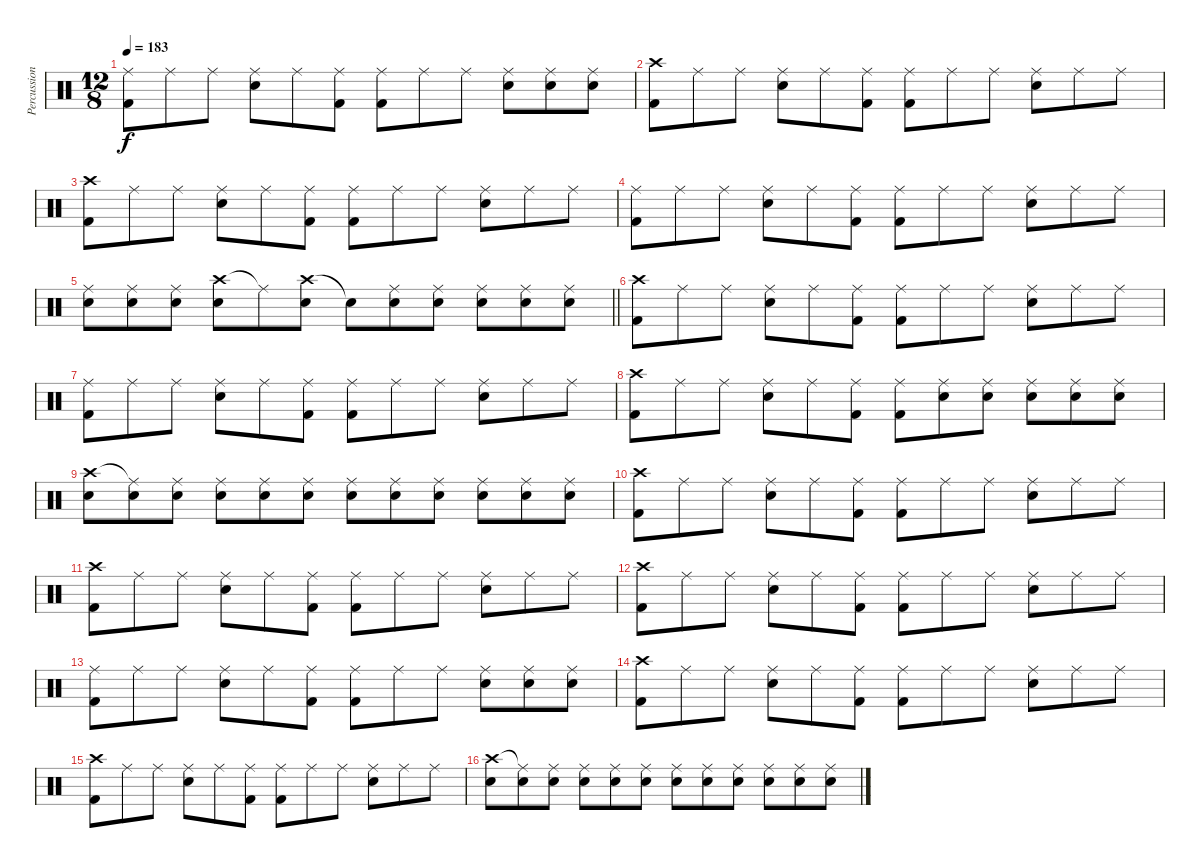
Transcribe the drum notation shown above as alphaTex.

\track ("Percussion" "Percussion") {instrument percussion}
\staff {score}
\articulation defaults
\ts (12 8)
\tempo 183
\clef neutral
\ks c
("Ride (middle)" "Kick (hit) 2").8{dy f} "Ride (middle)".8 "Ride (middle)".8 ("Ride (middle)" "Snare (hit) 2").8 "Ride (middle)".8 ("Ride (middle)" "Kick (hit) 2").8 ("Ride (middle)" "Kick (hit) 2").8 "Ride (middle)".8 "Ride (middle)".8 ("Ride (middle)" "Snare (hit) 2").8 ("Ride (middle)" "Snare (hit) 2").8 ("Ride (middle)" "Snare (hit) 2").8 |
("Crash high (hit)" "Kick (hit) 2").8 "Ride (middle)".8 "Ride (middle)".8 ("Ride (middle)" "Snare (hit) 2").8 "Ride (middle)".8 ("Ride (middle)" "Kick (hit) 2").8 ("Ride (middle)" "Kick (hit) 2").8 "Ride (middle)".8 "Ride (middle)".8 ("Ride (middle)" "Snare (hit) 2").8 "Ride (middle)".8 "Ride (middle)".8 |
("Crash high (hit)" "Kick (hit) 2").8 "Ride (middle)".8 "Ride (middle)".8 ("Ride (middle)" "Snare (hit) 2").8 "Ride (middle)".8 ("Ride (middle)" "Kick (hit) 2").8 ("Ride (middle)" "Kick (hit) 2").8 "Ride (middle)".8 "Ride (middle)".8 ("Ride (middle)" "Snare (hit) 2").8 "Ride (middle)".8 "Ride (middle)".8 |
("Ride (middle)" "Kick (hit) 2").8 "Ride (middle)".8 "Ride (middle)".8 ("Ride (middle)" "Snare (hit) 2").8 "Ride (middle)".8 ("Ride (middle)" "Kick (hit) 2").8 ("Ride (middle)" "Kick (hit) 2").8 "Ride (middle)".8 "Ride (middle)".8 ("Ride (middle)" "Snare (hit) 2").8 "Ride (middle)".8 "Ride (middle)".8 |
\barLineRight lightlight
("Ride (middle)" "Snare (hit) 2").8 ("Ride (middle)" "Snare (hit) 2").8 ("Ride (middle)" "Snare (hit) 2").8 ("Crash high (hit)" "Snare (hit) 2").8 "Ride (middle)"{t}.8 ("Crash high (hit)" "Snare (hit) 2").8 "Snare (hit)"{t}.8 ("Ride (middle)" "Snare (hit) 2").8 ("Ride (middle)" "Snare (hit) 2").8 ("Ride (middle)" "Snare (hit) 2").8 ("Ride (middle)" "Snare (hit) 2").8 ("Ride (middle)" "Snare (hit) 2").8 |
("Crash high (hit)" "Kick (hit) 2").8 "Ride (middle)".8 "Ride (middle)".8 ("Ride (middle)" "Snare (hit) 2").8 "Ride (middle)".8 ("Ride (middle)" "Kick (hit) 2").8 ("Ride (middle)" "Kick (hit) 2").8 "Ride (middle)".8 "Ride (middle)".8 ("Ride (middle)" "Snare (hit) 2").8 "Ride (middle)".8 "Ride (middle)".8 |
("Ride (middle)" "Kick (hit) 2").8 "Ride (middle)".8 "Ride (middle)".8 ("Ride (middle)" "Snare (hit) 2").8 "Ride (middle)".8 ("Ride (middle)" "Kick (hit) 2").8 ("Ride (middle)" "Kick (hit) 2").8 "Ride (middle)".8 "Ride (middle)".8 ("Ride (middle)" "Snare (hit) 2").8 "Ride (middle)".8 "Ride (middle)".8 |
("Crash high (hit)" "Kick (hit) 2").8 "Ride (middle)".8 "Ride (middle)".8 ("Ride (middle)" "Snare (hit) 2").8 "Ride (middle)".8 ("Ride (middle)" "Kick (hit) 2").8 ("Ride (middle)" "Kick (hit) 2").8 ("Ride (middle)" "Snare (hit) 2").8 ("Ride (middle)" "Snare (hit) 2").8 ("Ride (middle)" "Snare (hit) 2").8 ("Ride (middle)" "Snare (hit) 2").8 ("Ride (middle)" "Snare (hit) 2").8 |
("Crash high (hit)" "Snare (hit) 2").8 ("Ride (middle)"{t} "Snare (hit) 2").8 ("Ride (middle)" "Snare (hit) 2").8 ("Ride (middle)" "Snare (hit) 2").8 ("Ride (middle)" "Snare (hit) 2").8 ("Ride (middle)" "Snare (hit) 2").8 ("Ride (middle)" "Snare (hit) 2").8 ("Ride (middle)" "Snare (hit) 2").8 ("Ride (middle)" "Snare (hit) 2").8 ("Ride (middle)" "Snare (hit) 2").8 ("Ride (middle)" "Snare (hit) 2").8 ("Ride (middle)" "Snare (hit) 2").8 |
("Crash high (hit)" "Kick (hit) 2").8 "Ride (middle)".8 "Ride (middle)".8 ("Ride (middle)" "Snare (hit) 2").8 "Ride (middle)".8 ("Ride (middle)" "Kick (hit) 2").8 ("Ride (middle)" "Kick (hit) 2").8 "Ride (middle)".8 "Ride (middle)".8 ("Ride (middle)" "Snare (hit) 2").8 "Ride (middle)".8 "Ride (middle)".8 |
("Crash high (hit)" "Kick (hit) 2").8 "Ride (middle)".8 "Ride (middle)".8 ("Ride (middle)" "Snare (hit) 2").8 "Ride (middle)".8 ("Ride (middle)" "Kick (hit) 2").8 ("Ride (middle)" "Kick (hit) 2").8 "Ride (middle)".8 "Ride (middle)".8 ("Ride (middle)" "Snare (hit) 2").8 "Ride (middle)".8 "Ride (middle)".8 |
("Crash high (hit)" "Kick (hit) 2").8 "Ride (middle)".8 "Ride (middle)".8 ("Ride (middle)" "Snare (hit) 2").8 "Ride (middle)".8 ("Ride (middle)" "Kick (hit) 2").8 ("Ride (middle)" "Kick (hit) 2").8 "Ride (middle)".8 "Ride (middle)".8 ("Ride (middle)" "Snare (hit) 2").8 "Ride (middle)".8 "Ride (middle)".8 |
("Ride (middle)" "Kick (hit) 2").8 "Ride (middle)".8 "Ride (middle)".8 ("Ride (middle)" "Snare (hit) 2").8 "Ride (middle)".8 ("Ride (middle)" "Kick (hit) 2").8 ("Ride (middle)" "Kick (hit) 2").8 "Ride (middle)".8 "Ride (middle)".8 ("Ride (middle)" "Snare (hit) 2").8 ("Ride (middle)" "Snare (hit) 2").8 ("Ride (middle)" "Snare (hit) 2").8 |
("Crash high (hit)" "Kick (hit) 2").8 "Ride (middle)".8 "Ride (middle)".8 ("Ride (middle)" "Snare (hit) 2").8 "Ride (middle)".8 ("Ride (middle)" "Kick (hit) 2").8 ("Ride (middle)" "Kick (hit) 2").8 "Ride (middle)".8 "Ride (middle)".8 ("Ride (middle)" "Snare (hit) 2").8 "Ride (middle)".8 "Ride (middle)".8 |
("Crash high (hit)" "Kick (hit) 2").8 "Ride (middle)".8 "Ride (middle)".8 ("Ride (middle)" "Snare (hit) 2").8 "Ride (middle)".8 ("Ride (middle)" "Kick (hit) 2").8 ("Ride (middle)" "Kick (hit) 2").8 "Ride (middle)".8 "Ride (middle)".8 ("Ride (middle)" "Snare (hit) 2").8 "Ride (middle)".8 "Ride (middle)".8 |
("Crash high (hit)" "Snare (hit) 2").8 ("Ride (middle)"{t} "Snare (hit) 2").8 ("Ride (middle)" "Snare (hit) 2").8 ("Ride (middle)" "Snare (hit) 2").8 ("Ride (middle)" "Snare (hit) 2").8 ("Ride (middle)" "Snare (hit) 2").8 ("Ride (middle)" "Snare (hit) 2").8 ("Ride (middle)" "Snare (hit) 2").8 ("Ride (middle)" "Snare (hit) 2").8 ("Ride (middle)" "Snare (hit) 2").8 ("Ride (middle)" "Snare (hit) 2").8 ("Ride (middle)" "Snare (hit) 2").8
